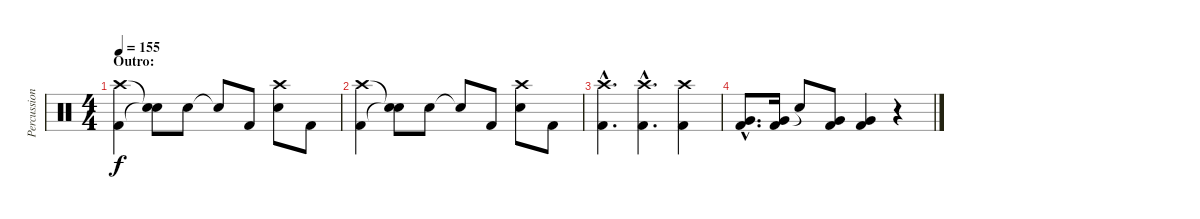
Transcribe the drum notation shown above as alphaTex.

\track ("Percussion" "Percussion") {instrument percussion}
\staff {score}
\articulation defaults
\ts (4 4)
\section ("" "Outro:")
\tempo 155
\clef neutral
\ks c
("Crash high (hit)" "Kick (hit) 2").4{dy f} ("Snare (hit)"{t} "Snare (hit)"{t}).8 "Electric Snare (hit)".8 "Snare (hit)"{t}.8 "Kick (hit) 2".8 ("Crash high (hit)" "Electric Snare (hit)").8 "Kick (hit) 2".8 |
("Crash high (hit)" "Kick (hit) 2").4 ("Snare (hit)"{t} "Snare (hit)"{t}).8 "Electric Snare (hit)".8 "Snare (hit)"{t}.8 "Kick (hit) 2".8 ("Crash high (hit)" "Electric Snare (hit)").8 "Kick (hit) 2".8 |
("Crash high (hit)"{hac} "Kick (hit) 2"{hac}).4{d} ("Crash high (hit)"{hac} "Kick (hit) 2"{hac}).4{d} ("Crash high (hit)" "Kick (hit) 2").4 |
("Very Low Tom (hit)"{hac} "Kick (hit) 2"{hac}).8{d} ("Very Low Tom (hit)" "Kick (hit) 2").16 "Snare (hit)"{t}.8 ("Very Low Tom (hit)" "Kick (hit) 2").8 ("Very Low Tom (hit)" "Kick (hit) 2").4 r.4
